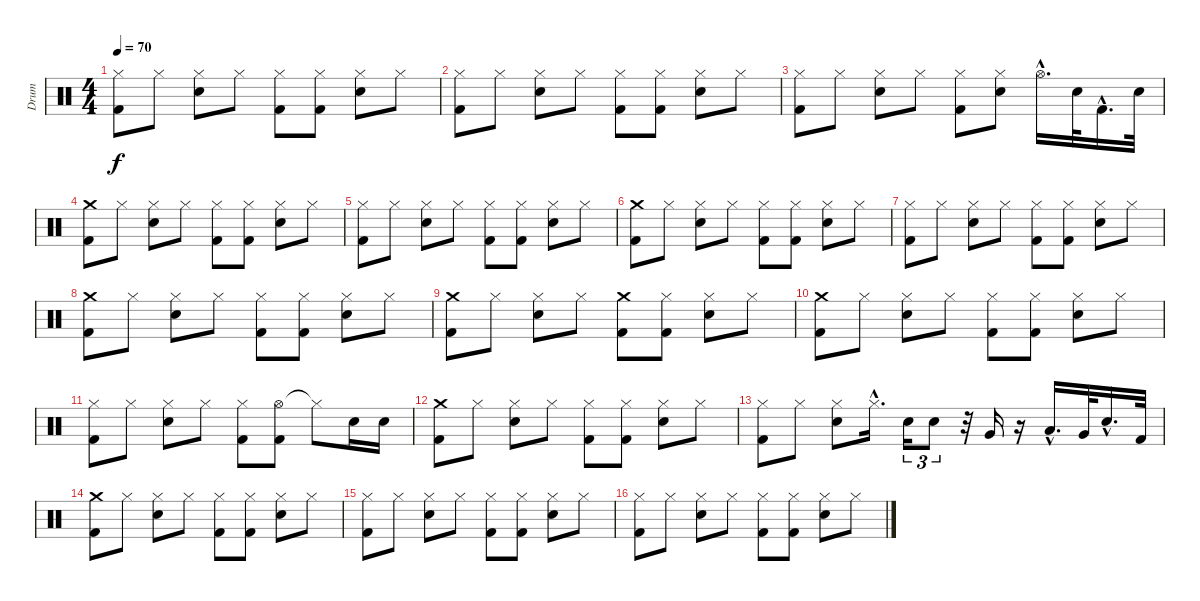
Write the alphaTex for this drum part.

\track ("Drum" "Drum") {instrument percussion}
\staff {score}
\articulation defaults
\ts (4 4)
\tempo 70
\clef neutral
\ks c
("Hi-Hat (closed)" "Kick (hit) 2").8{dy f} "Hi-Hat (closed)".8 ("Hi-Hat (closed)" "Snare (hit) 2").8 "Hi-Hat (closed)".8 ("Hi-Hat (closed)" "Kick (hit) 2").8 ("Hi-Hat (closed)" "Kick (hit) 2").8 ("Hi-Hat (closed)" "Snare (hit) 2").8 "Hi-Hat (closed)".8 |
("Hi-Hat (closed)" "Kick (hit) 2").8 "Hi-Hat (closed)".8 ("Hi-Hat (closed)" "Snare (hit) 2").8 "Hi-Hat (closed)".8 ("Hi-Hat (closed)" "Kick (hit) 2").8 ("Hi-Hat (closed)" "Kick (hit) 2").8 ("Hi-Hat (closed)" "Snare (hit) 2").8 "Hi-Hat (closed)".8 |
("Hi-Hat (closed)" "Kick (hit) 2").8 "Hi-Hat (closed)".8 ("Hi-Hat (closed)" "Snare (hit) 2").8 "Hi-Hat (closed)".8 ("Hi-Hat (closed)" "Kick (hit) 2").8 ("Hi-Hat (closed)" "Snare (hit) 2").8 "Hi-Hat (open)"{hac}.16{d} "Snare (hit) 2".32 "Kick (hit) 2"{hac}.16{d} "Snare (hit) 2".32 |
("Crash medium (hit)" "Kick (hit) 2").8 "Hi-Hat (closed)".8 ("Hi-Hat (closed)" "Snare (hit) 2").8 "Hi-Hat (closed)".8 ("Hi-Hat (closed)" "Kick (hit) 2").8 ("Hi-Hat (closed)" "Kick (hit) 2").8 ("Hi-Hat (closed)" "Snare (hit) 2").8 "Hi-Hat (closed)".8 |
("Hi-Hat (closed)" "Kick (hit) 2").8 "Hi-Hat (closed)".8 ("Hi-Hat (closed)" "Snare (hit) 2").8 "Hi-Hat (closed)".8 ("Hi-Hat (closed)" "Kick (hit) 2").8 ("Hi-Hat (closed)" "Kick (hit) 2").8 ("Hi-Hat (closed)" "Snare (hit) 2").8 "Hi-Hat (closed)".8 |
("Crash medium (hit)" "Kick (hit) 2").8 "Hi-Hat (closed)".8 ("Hi-Hat (closed)" "Snare (hit) 2").8 "Hi-Hat (closed)".8 ("Hi-Hat (closed)" "Kick (hit) 2").8 ("Hi-Hat (closed)" "Kick (hit) 2").8 ("Hi-Hat (closed)" "Snare (hit) 2").8 "Hi-Hat (closed)".8 |
("Hi-Hat (closed)" "Kick (hit) 2").8 "Hi-Hat (closed)".8 ("Hi-Hat (closed)" "Snare (hit) 2").8 "Hi-Hat (closed)".8 ("Hi-Hat (closed)" "Kick (hit) 2").8 ("Hi-Hat (closed)" "Kick (hit) 2").8 ("Hi-Hat (closed)" "Snare (hit) 2").8 "Hi-Hat (closed)".8 |
("Crash medium (hit)" "Kick (hit) 2").8 "Hi-Hat (closed)".8 ("Hi-Hat (closed)" "Snare (hit) 2").8 "Hi-Hat (closed)".8 ("Hi-Hat (closed)" "Kick (hit) 2").8 ("Hi-Hat (closed)" "Kick (hit) 2").8 ("Hi-Hat (closed)" "Snare (hit) 2").8 "Hi-Hat (closed)".8 |
("Crash medium (hit)" "Kick (hit) 2").8 "Hi-Hat (closed)".8 ("Hi-Hat (closed)" "Snare (hit) 2").8 "Hi-Hat (closed)".8 ("Crash medium (hit)" "Kick (hit) 2").8 ("Hi-Hat (closed)" "Kick (hit) 2").8 ("Hi-Hat (closed)" "Snare (hit) 2").8 "Hi-Hat (closed)".8 |
("Crash medium (hit)" "Kick (hit) 2").8 "Hi-Hat (closed)".8 ("Hi-Hat (closed)" "Snare (hit) 2").8 "Hi-Hat (closed)".8 ("Hi-Hat (closed)" "Kick (hit) 2").8 ("Hi-Hat (closed)" "Kick (hit) 2").8 ("Hi-Hat (closed)" "Snare (hit) 2").8 "Hi-Hat (closed)".8 |
("Hi-Hat (closed)" "Kick (hit) 2").8 "Hi-Hat (closed)".8 ("Hi-Hat (closed)" "Snare (hit) 2").8 "Hi-Hat (closed)".8 ("Hi-Hat (closed)" "Kick (hit) 2").8 ("Hi-Hat (open)" "Kick (hit) 2").8 "Hi-Hat (closed)"{t}.8 "Snare (hit) 2".16 "Snare (hit) 2".16 |
("Crash medium (hit)" "Kick (hit) 2").8 "Hi-Hat (closed)".8 ("Hi-Hat (closed)" "Snare (hit) 2").8 "Hi-Hat (closed)".8 ("Hi-Hat (closed)" "Kick (hit) 2").8 ("Hi-Hat (closed)" "Kick (hit) 2").8 ("Hi-Hat (closed)" "Snare (hit) 2").8 "Hi-Hat (closed)".8 |
("Hi-Hat (closed)" "Kick (hit) 2").8 "Hi-Hat (closed)".8 ("Hi-Hat (closed)" "Snare (hit) 2").8 "Hi-Hat (closed)"{hac}.16{d} "Snare (hit) 2".16{tu (3 2)} "Snare (hit) 2".8{tu (3 2)} r.32 "Very Low Tom (hit)".16 r.16 "Low Tom (hit)"{hac}.16{d} "Very Low Tom (hit)".32 "Snare (hit) 2"{hac}.16{d} "Kick (hit) 2".32 |
("Crash medium (hit)" "Kick (hit) 2").8 "Hi-Hat (closed)".8 ("Hi-Hat (closed)" "Snare (hit) 2").8 "Hi-Hat (closed)".8 ("Hi-Hat (closed)" "Kick (hit) 2").8 ("Hi-Hat (closed)" "Kick (hit) 2").8 ("Hi-Hat (closed)" "Snare (hit) 2").8 "Hi-Hat (closed)".8 |
("Hi-Hat (closed)" "Kick (hit) 2").8 "Hi-Hat (closed)".8 ("Hi-Hat (closed)" "Snare (hit) 2").8 "Hi-Hat (closed)".8 ("Hi-Hat (closed)" "Kick (hit) 2").8 ("Hi-Hat (closed)" "Kick (hit) 2").8 ("Hi-Hat (closed)" "Snare (hit) 2").8 "Hi-Hat (closed)".8 |
("Hi-Hat (closed)" "Kick (hit) 2").8 "Hi-Hat (closed)".8 ("Hi-Hat (closed)" "Snare (hit) 2").8 "Hi-Hat (closed)".8 ("Hi-Hat (closed)" "Kick (hit) 2").8 ("Hi-Hat (closed)" "Kick (hit) 2").8 ("Hi-Hat (closed)" "Snare (hit) 2").8 "Hi-Hat (closed)".8
